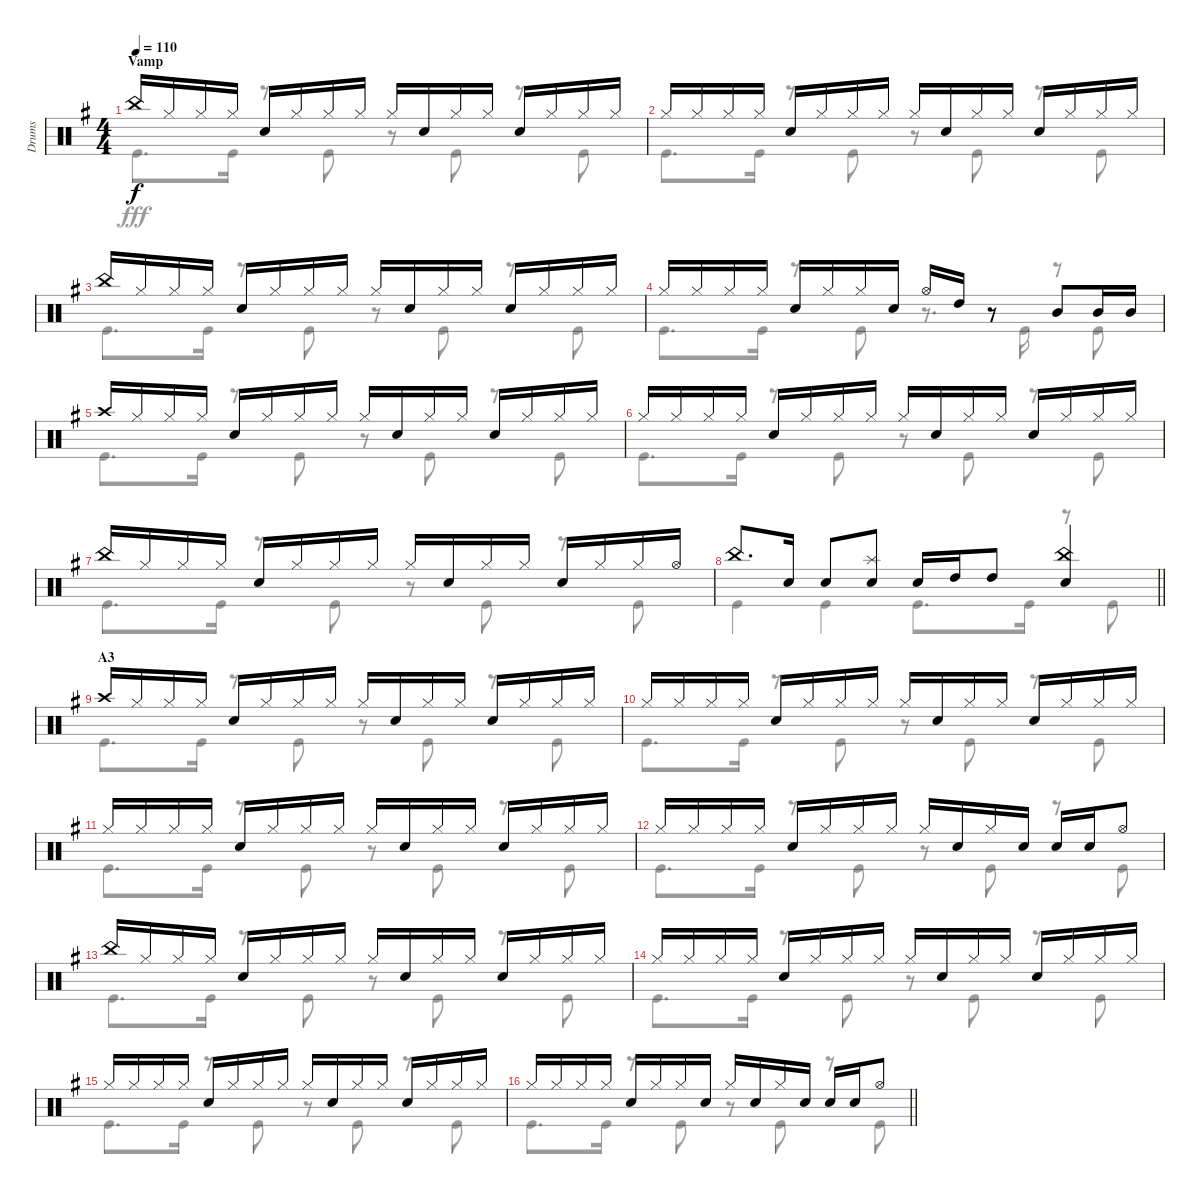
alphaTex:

\track ("Drums" "Drums") {instrument percussion}
\staff {score}
\articulation defaults
\voice
\ts (4 4)
\section ("" "Vamp")
\tempo 110
\clef neutral
\ks g "China (hit)".16{dy f} "Hi-Hat (closed)".16 "Hi-Hat (closed)".16 "Hi-Hat (closed)".16 "Snare (hit) 2".16 "Hi-Hat (closed)".16 "Hi-Hat (closed)".16 "Hi-Hat (closed)".16 "Hi-Hat (closed)".16 "Snare (hit) 2".16 "Hi-Hat (closed)".16 "Hi-Hat (closed)".16 "Snare (hit) 2".16 "Hi-Hat (closed)".16 "Hi-Hat (closed)".16 "Hi-Hat (closed)".16
|
"Hi-Hat (closed)".16 "Hi-Hat (closed)".16 "Hi-Hat (closed)".16 "Hi-Hat (closed)".16 "Snare (hit) 2".16 "Hi-Hat (closed)".16 "Hi-Hat (closed)".16 "Hi-Hat (closed)".16 "Hi-Hat (closed)".16 "Snare (hit) 2".16 "Hi-Hat (closed)".16 "Hi-Hat (closed)".16 "Snare (hit) 2".16 "Hi-Hat (closed)".16 "Hi-Hat (closed)".16 "Hi-Hat (closed)".16 |
"China (hit)".16 "Hi-Hat (closed)".16 "Hi-Hat (closed)".16 "Hi-Hat (closed)".16 "Snare (hit) 2".16 "Hi-Hat (closed)".16 "Hi-Hat (closed)".16 "Hi-Hat (closed)".16 "Hi-Hat (closed)".16 "Snare (hit) 2".16 "Hi-Hat (closed)".16 "Hi-Hat (closed)".16 "Snare (hit) 2".16 "Hi-Hat (closed)".16 "Hi-Hat (closed)".16 "Hi-Hat (closed)".16 |
"Hi-Hat (closed)".16 "Hi-Hat (closed)".16 "Hi-Hat (closed)".16 "Hi-Hat (closed)".16 "Snare (hit) 2".16 "Hi-Hat (closed)".16 "Hi-Hat (closed)".16 "Snare (hit) 2".16 "Hi-Hat (open)".16 "High Tom (hit)".16 r.8 "Mid Tom (hit)".8 "Mid Tom (hit)".16 "Mid Tom (hit)".16 |
"Crash high (hit)".16 "Hi-Hat (closed)".16 "Hi-Hat (closed)".16 "Hi-Hat (closed)".16 "Snare (hit) 2".16 "Hi-Hat (closed)".16 "Hi-Hat (closed)".16 "Hi-Hat (closed)".16 "Hi-Hat (closed)".16 "Snare (hit) 2".16 "Hi-Hat (closed)".16 "Hi-Hat (closed)".16 "Snare (hit) 2".16 "Hi-Hat (closed)".16 "Hi-Hat (closed)".16 "Hi-Hat (closed)".16 |
"Hi-Hat (closed)".16 "Hi-Hat (closed)".16 "Hi-Hat (closed)".16 "Hi-Hat (closed)".16 "Snare (hit) 2".16 "Hi-Hat (closed)".16 "Hi-Hat (closed)".16 "Hi-Hat (closed)".16 "Hi-Hat (closed)".16 "Snare (hit) 2".16 "Hi-Hat (closed)".16 "Hi-Hat (closed)".16 "Snare (hit) 2".16 "Hi-Hat (closed)".16 "Hi-Hat (closed)".16 "Hi-Hat (closed)".16 |
"China (hit)".16 "Hi-Hat (closed)".16 "Hi-Hat (closed)".16 "Hi-Hat (closed)".16 "Snare (hit) 2".16 "Hi-Hat (closed)".16 "Hi-Hat (closed)".16 "Hi-Hat (closed)".16 "Hi-Hat (closed)".16 "Snare (hit) 2".16 "Hi-Hat (closed)".16 "Hi-Hat (closed)".16 "Snare (hit) 2".16 "Hi-Hat (closed)".16 "Hi-Hat (closed)".16 "Hi-Hat (open)".16 |
\barLineRight lightlight "China (hit)".8{d} "Snare (hit) 2".16 "Snare (hit) 2".8
("Splash (hit)" "Snare (hit) 2").8 "Snare (hit) 2".16 "High Tom (hit)".16 "High Tom (hit)".8 ("China (hit)" "Snare (hit) 2").4 |
\section ("" "A3")
"Crash high (hit)".16 "Hi-Hat (closed)".16 "Hi-Hat (closed)".16 "Hi-Hat (closed)".16 "Snare (hit) 2".16 "Hi-Hat (closed)".16 "Hi-Hat (closed)".16 "Hi-Hat (closed)".16 "Hi-Hat (closed)".16 "Snare (hit) 2".16 "Hi-Hat (closed)".16 "Hi-Hat (closed)".16 "Snare (hit) 2".16 "Hi-Hat (closed)".16 "Hi-Hat (closed)".16 "Hi-Hat (closed)".16 |
"Hi-Hat (closed)".16 "Hi-Hat (closed)".16 "Hi-Hat (closed)".16 "Hi-Hat (closed)".16 "Snare (hit) 2".16 "Hi-Hat (closed)".16 "Hi-Hat (closed)".16 "Hi-Hat (closed)".16 "Hi-Hat (closed)".16 "Snare (hit) 2".16 "Hi-Hat (closed)".16 "Hi-Hat (closed)".16 "Snare (hit) 2".16 "Hi-Hat (closed)".16 "Hi-Hat (closed)".16 "Hi-Hat (closed)".16 |
"Hi-Hat (closed)".16 "Hi-Hat (closed)".16 "Hi-Hat (closed)".16 "Hi-Hat (closed)".16 "Snare (hit) 2".16 "Hi-Hat (closed)".16 "Hi-Hat (closed)".16 "Hi-Hat (closed)".16 "Hi-Hat (closed)".16 "Snare (hit) 2".16 "Hi-Hat (closed)".16 "Hi-Hat (closed)".16 "Snare (hit) 2".16 "Hi-Hat (closed)".16 "Hi-Hat (closed)".16 "Hi-Hat (closed)".16 |
"Hi-Hat (closed)".16 "Hi-Hat (closed)".16 "Hi-Hat (closed)".16 "Hi-Hat (closed)".16 "Snare (hit) 2".16 "Hi-Hat (closed)".16 "Hi-Hat (closed)".16 "Hi-Hat (closed)".16 "Hi-Hat (closed)".16 "Snare (hit) 2".16 "Hi-Hat (closed)".16 "Snare (hit) 2".16 "Snare (hit) 2".16 "Snare (hit) 2".16 "Hi-Hat (open)".8 |
"China (hit)".16 "Hi-Hat (closed)".16 "Hi-Hat (closed)".16 "Hi-Hat (closed)".16 "Snare (hit) 2".16 "Hi-Hat (closed)".16 "Hi-Hat (closed)".16 "Hi-Hat (closed)".16 "Hi-Hat (closed)".16 "Snare (hit) 2".16 "Hi-Hat (closed)".16 "Hi-Hat (closed)".16 "Snare (hit) 2".16 "Hi-Hat (closed)".16 "Hi-Hat (closed)".16 "Hi-Hat (closed)".16 |
"Hi-Hat (closed)".16 "Hi-Hat (closed)".16 "Hi-Hat (closed)".16 "Hi-Hat (closed)".16 "Snare (hit) 2".16 "Hi-Hat (closed)".16 "Hi-Hat (closed)".16 "Hi-Hat (closed)".16 "Hi-Hat (closed)".16 "Snare (hit) 2".16 "Hi-Hat (closed)".16 "Hi-Hat (closed)".16 "Snare (hit) 2".16 "Hi-Hat (closed)".16 "Hi-Hat (closed)".16 "Hi-Hat (closed)".16 |
"Hi-Hat (closed)".16 "Hi-Hat (closed)".16 "Hi-Hat (closed)".16 "Hi-Hat (closed)".16 "Snare (hit) 2".16 "Hi-Hat (closed)".16 "Hi-Hat (closed)".16 "Hi-Hat (closed)".16 "Hi-Hat (closed)".16 "Snare (hit) 2".16 "Hi-Hat (closed)".16 "Hi-Hat (closed)".16 "Snare (hit) 2".16 "Hi-Hat (closed)".16 "Hi-Hat (closed)".16 "Hi-Hat (closed)".16 |
\barLineRight lightlight "Hi-Hat (closed)".16 "Hi-Hat (closed)".16 "Hi-Hat (closed)".16 "Hi-Hat (closed)".16 "Snare (hit) 2".16 "Hi-Hat (closed)".16 "Hi-Hat (closed)".16 "Snare (hit) 2".16 "Hi-Hat (closed)".16 "Snare (hit) 2".16 "Hi-Hat (closed)".16 "Snare (hit) 2".16 "Snare (hit) 2".16 "Snare (hit) 2".16 "Hi-Hat (open)".8
\voice
\clef neutral
\ottava regular
\simile none
\ks g "Kick (hit)".8{d dy fff} "Kick (hit)".16
r.8 "Kick (hit)".8 r.8 "Kick (hit)".8 r.8 "Kick (hit)".8 |
"Kick (hit)".8{d} "Kick (hit)".16 r.8 "Kick (hit)".8 r.8 "Kick (hit)".8 r.8 "Kick (hit)".8 |
"Kick (hit)".8{d} "Kick (hit)".16 r.8 "Kick (hit)".8 r.8 "Kick (hit)".8 r.8 "Kick (hit)".8 |
"Kick (hit)".8{d} "Kick (hit)".16 r.8 "Kick (hit)".8 r.8{d} "Kick (hit)".16 r.8 "Kick (hit)".8 |
"Kick (hit)".8{d} "Kick (hit)".16 r.8 "Kick (hit)".8 r.8 "Kick (hit)".8 r.8 "Kick (hit)".8 |
"Kick (hit)".8{d} "Kick (hit)".16 r.8 "Kick (hit)".8 r.8 "Kick (hit)".8 r.8 "Kick (hit)".8 |
"Kick (hit)".8{d} "Kick (hit)".16 r.8 "Kick (hit)".8 r.8 "Kick (hit)".8 r.8 "Kick (hit)".8 |
\barLineRight lightlight "Kick (hit)".4 "Kick (hit)".4 "Kick (hit)".8{d} "Kick (hit)".16
r.8 "Kick (hit)".8 |
"Kick (hit)".8{d} "Kick (hit)".16 r.8 "Kick (hit)".8 r.8 "Kick (hit)".8 r.8 "Kick (hit)".8 |
"Kick (hit)".8{d} "Kick (hit)".16 r.8 "Kick (hit)".8 r.8 "Kick (hit)".8 r.8 "Kick (hit)".8 |
"Kick (hit)".8{d} "Kick (hit)".16 r.8 "Kick (hit)".8 r.8 "Kick (hit)".8 r.8 "Kick (hit)".8 |
"Kick (hit)".8{d} "Kick (hit)".16 r.8 "Kick (hit)".8 r.8 "Kick (hit)".8 r.8 "Kick (hit)".8 |
"Kick (hit)".8{d} "Kick (hit)".16 r.8 "Kick (hit)".8 r.8 "Kick (hit)".8 r.8 "Kick (hit)".8 |
"Kick (hit)".8{d} "Kick (hit)".16 r.8 "Kick (hit)".8 r.8 "Kick (hit)".8 r.8 "Kick (hit)".8 |
"Kick (hit)".8{d} "Kick (hit)".16 r.8 "Kick (hit)".8 r.8 "Kick (hit)".8 r.8 "Kick (hit)".8 |
\barLineRight lightlight "Kick (hit)".8{d} "Kick (hit)".16
r.8 "Kick (hit)".8 r.8 "Kick (hit)".8 r.8 "Kick (hit)".8
